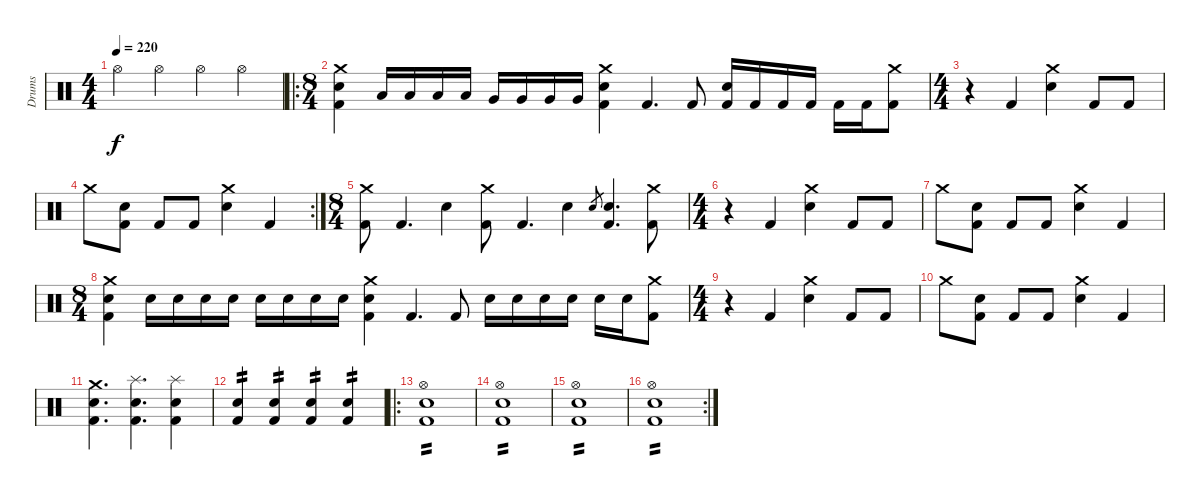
\track ("Drums" "Drums") {instrument percussion}
\staff {score}
\articulation defaults
\ts (4 4)
\tempo 220
\clef neutral
\ks c "Hi-Hat (open)".4{dy f} "Hi-Hat (open)".4 "Hi-Hat (open)".4 "Hi-Hat (open)".4
|
\ro
\ts (8 4)
("Crash medium (hit)" "Snare (hit) 2" "Kick (hit) 2").4 "Low Tom (hit)".16 "Low Tom (hit)".16 "Low Tom (hit)".16 "Low Tom (hit)".16 "Very Low Tom (hit)".16 "Very Low Tom (hit)".16 "Very Low Tom (hit)".16 "Very Low Tom (hit)".16 ("Crash medium (hit)" "Snare (hit) 2" "Kick (hit) 2").4 "Kick (hit) 2".4{d} "Kick (hit) 2".8 ("Snare (hit) 2" "Kick (hit) 2").16 "Kick (hit) 2".16 "Kick (hit) 2".16 "Kick (hit) 2".16 "Kick (hit) 2".16 "Kick (hit) 2".16 ("Crash medium (hit)" "Kick (hit) 2").8 |
\ts (4 4)
r.4 "Kick (hit) 2".4 ("Crash medium (hit)" "Snare (hit) 2").4 "Kick (hit) 2".8 "Kick (hit) 2".8 |
\rc 2 "Crash medium (hit)".8
("Snare (hit) 2" "Kick (hit) 2").8 "Kick (hit) 2".8 "Kick (hit) 2".8 ("Crash medium (hit)" "Snare (hit) 2").4 "Kick (hit) 2".4 |
\ts (8 4)
("Crash medium (hit)" "Kick (hit) 2").8 "Kick (hit) 2".4{d} "Snare (hit) 2".4 ("Crash medium (hit)" "Kick (hit) 2").8 "Kick (hit) 2".4{d} "Snare (hit) 2".4 "Snare (hit) 2".8{gr} ("Snare (hit) 2" "Kick (hit) 2").4{d} ("Crash medium (hit)" "Kick (hit) 2").8 |
\ts (4 4)
r.4 "Kick (hit) 2".4 ("Crash medium (hit)" "Snare (hit) 2").4 "Kick (hit) 2".8 "Kick (hit) 2".8 |
"Crash medium (hit)".8 ("Snare (hit) 2" "Kick (hit) 2").8 "Kick (hit) 2".8 "Kick (hit) 2".8 ("Crash medium (hit)" "Snare (hit) 2").4 "Kick (hit) 2".4 |
\ts (8 4)
("Crash medium (hit)" "Snare (hit) 2" "Kick (hit) 2").4 "Snare (hit) 2".16 "Snare (hit) 2".16 "Snare (hit) 2".16 "Snare (hit) 2".16 "Snare (hit) 2".16 "Snare (hit) 2".16 "Snare (hit) 2".16 "Snare (hit) 2".16 ("Crash medium (hit)" "Snare (hit) 2" "Kick (hit) 2").4 "Kick (hit) 2".4{d} "Kick (hit) 2".8 "Snare (hit) 2".16 "Snare (hit) 2".16 "Snare (hit) 2".16 "Snare (hit) 2".16 "Snare (hit) 2".16 "Snare (hit) 2".16 ("Crash medium (hit)" "Kick (hit) 2").8 |
\ts (4 4)
r.4 "Kick (hit) 2".4 ("Crash medium (hit)" "Snare (hit) 2").4 "Kick (hit) 2".8 "Kick (hit) 2".8 |
"Crash medium (hit)".8 ("Snare (hit) 2" "Kick (hit) 2").8 "Kick (hit) 2".8 "Kick (hit) 2".8 ("Crash medium (hit)" "Snare (hit) 2").4 "Kick (hit) 2".4 |
("Crash medium (hit)" "Snare (hit) 2" "Kick (hit) 2").4{d} ("Splash (hit)" "Snare (hit) 2" "Kick (hit) 2").4{d} ("Splash (hit)" "Snare (hit) 2" "Kick (hit) 2").4 |
("Snare (hit) 2" "Kick (hit) 2").4{tp 2} ("Snare (hit) 2" "Kick (hit) 2").4{tp 2} ("Snare (hit) 2" "Kick (hit) 2").4{tp 2} ("Snare (hit) 2" "Kick (hit) 2").4{tp 2} |
\ro
("Hi-Hat (open)" "Snare (hit) 2" "Kick (hit) 2").1{tp 2} |
("Hi-Hat (open)" "Snare (hit) 2" "Kick (hit) 2").1{tp 2} |
("Hi-Hat (open)" "Snare (hit) 2" "Kick (hit) 2").1{tp 2} |
\rc 2
("Hi-Hat (open)" "Snare (hit) 2" "Kick (hit) 2").1{tp 2}
